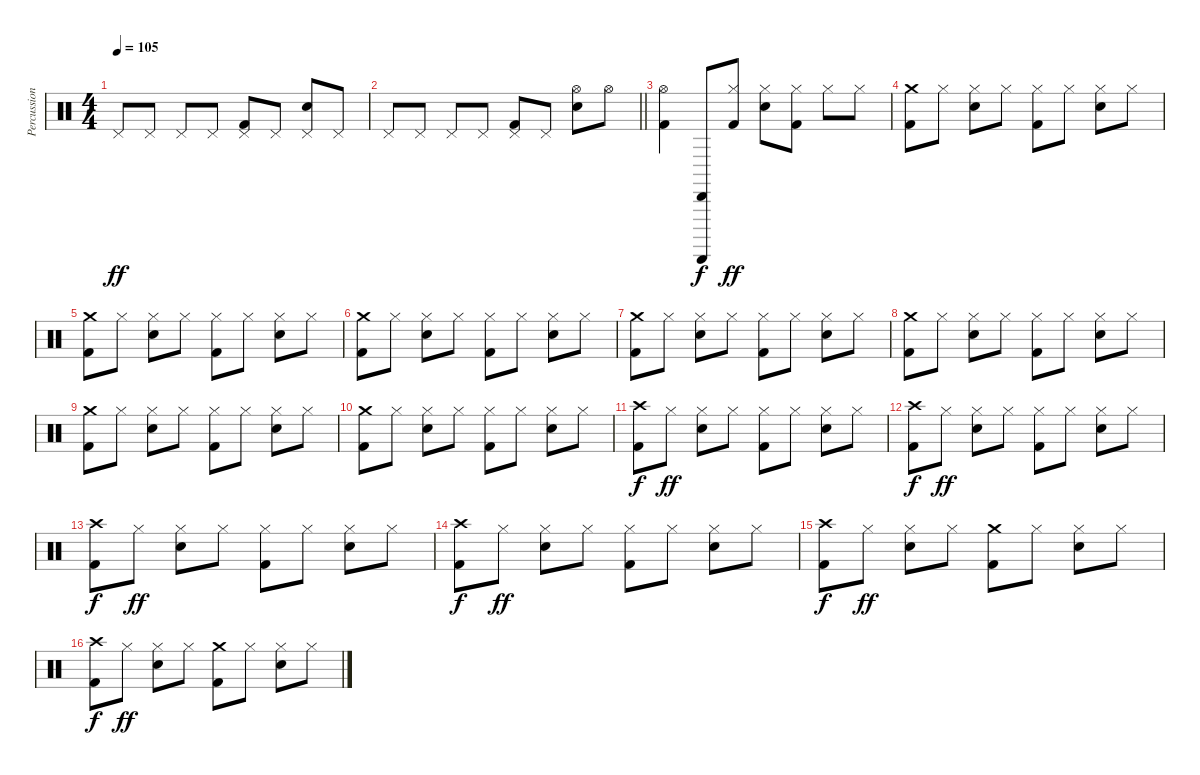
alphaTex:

\track ("Percussion" "Percussion") {instrument percussion}
\staff {score}
\articulation defaults
\ts (4 4)
\tempo 105
\clef neutral
\ks c "Pedal Hi-Hat (hit)".8{dy ff} "Pedal Hi-Hat (hit)".8 "Pedal Hi-Hat (hit)".8 "Pedal Hi-Hat (hit)".8
("Pedal Hi-Hat (hit)" "Kick (hit) 2").8 "Pedal Hi-Hat (hit)".8 ("Pedal Hi-Hat (hit)" "Electric Snare (hit)").8 "Pedal Hi-Hat (hit)".8 |
\barLineRight lightlight "Pedal Hi-Hat (hit)".8 "Pedal Hi-Hat (hit)".8 "Pedal Hi-Hat (hit)".8 "Pedal Hi-Hat (hit)".8
("Pedal Hi-Hat (hit)" "Kick (hit) 2").8 "Pedal Hi-Hat (hit)".8 ("Hi-Hat (open)" "Electric Snare (hit)").8 "Hi-Hat (open)".8 |
("Hi-Hat (open)" "Kick (hit) 2").4 ("Cabasa (hit)" "Guiro (scrap-return)").8{dy f} ("Hi-Hat (closed)" "Kick (hit) 2").8{dy ff} ("Hi-Hat (closed)" "Electric Snare (hit)").8 ("Hi-Hat (closed)" "Kick (hit) 2").8 "Hi-Hat (closed)".8 "Hi-Hat (closed)".8 |
("Crash medium (hit)" "Kick (hit) 2").8 "Hi-Hat (closed)".8 ("Hi-Hat (closed)" "Electric Snare (hit)").8 "Hi-Hat (closed)".8 ("Hi-Hat (closed)" "Kick (hit) 2").8 "Hi-Hat (closed)".8 ("Hi-Hat (closed)" "Electric Snare (hit)").8 "Hi-Hat (closed)".8 |
("Crash medium (hit)" "Kick (hit) 2").8 "Hi-Hat (closed)".8 ("Hi-Hat (closed)" "Electric Snare (hit)").8 "Hi-Hat (closed)".8 ("Hi-Hat (closed)" "Kick (hit) 2").8 "Hi-Hat (closed)".8 ("Hi-Hat (closed)" "Electric Snare (hit)").8 "Hi-Hat (closed)".8 |
("Crash medium (hit)" "Kick (hit) 2").8 "Hi-Hat (closed)".8 ("Hi-Hat (closed)" "Electric Snare (hit)").8 "Hi-Hat (closed)".8 ("Hi-Hat (closed)" "Kick (hit) 2").8 "Hi-Hat (closed)".8 ("Hi-Hat (closed)" "Electric Snare (hit)").8 "Hi-Hat (closed)".8 |
("Crash medium (hit)" "Kick (hit) 2").8 "Hi-Hat (closed)".8 ("Hi-Hat (closed)" "Electric Snare (hit)").8 "Hi-Hat (closed)".8 ("Hi-Hat (closed)" "Kick (hit) 2").8 "Hi-Hat (closed)".8 ("Hi-Hat (closed)" "Electric Snare (hit)").8 "Hi-Hat (closed)".8 |
("Crash medium (hit)" "Kick (hit) 2").8 "Hi-Hat (closed)".8 ("Hi-Hat (closed)" "Electric Snare (hit)").8 "Hi-Hat (closed)".8 ("Hi-Hat (closed)" "Kick (hit) 2").8 "Hi-Hat (closed)".8 ("Hi-Hat (closed)" "Electric Snare (hit)").8 "Hi-Hat (closed)".8 |
("Crash medium (hit)" "Kick (hit) 2").8 "Hi-Hat (closed)".8 ("Hi-Hat (closed)" "Electric Snare (hit)").8 "Hi-Hat (closed)".8 ("Hi-Hat (closed)" "Kick (hit) 2").8 "Hi-Hat (closed)".8 ("Hi-Hat (closed)" "Electric Snare (hit)").8 "Hi-Hat (closed)".8 |
("Crash medium (hit)" "Kick (hit) 2").8 "Hi-Hat (closed)".8 ("Hi-Hat (closed)" "Electric Snare (hit)").8 "Hi-Hat (closed)".8 ("Hi-Hat (closed)" "Kick (hit) 2").8 "Hi-Hat (closed)".8 ("Hi-Hat (closed)" "Electric Snare (hit)").8 "Hi-Hat (closed)".8 |
("Crash high (hit)" "Kick (hit) 2").8{dy f} "Hi-Hat (closed)".8{dy ff} ("Hi-Hat (closed)" "Electric Snare (hit)").8 "Hi-Hat (closed)".8 ("Hi-Hat (closed)" "Kick (hit) 2").8 "Hi-Hat (closed)".8 ("Hi-Hat (closed)" "Electric Snare (hit)").8 "Hi-Hat (closed)".8 |
("Crash high (hit)" "Kick (hit) 2").8{dy f} "Hi-Hat (closed)".8{dy ff} ("Hi-Hat (closed)" "Electric Snare (hit)").8 "Hi-Hat (closed)".8 ("Hi-Hat (closed)" "Kick (hit) 2").8 "Hi-Hat (closed)".8 ("Hi-Hat (closed)" "Electric Snare (hit)").8 "Hi-Hat (closed)".8 |
("Crash high (hit)" "Kick (hit) 2").8{dy f} "Hi-Hat (closed)".8{dy ff} ("Hi-Hat (closed)" "Electric Snare (hit)").8 "Hi-Hat (closed)".8 ("Hi-Hat (closed)" "Kick (hit) 2").8 "Hi-Hat (closed)".8 ("Hi-Hat (closed)" "Electric Snare (hit)").8 "Hi-Hat (closed)".8 |
("Crash high (hit)" "Kick (hit) 2").8{dy f} "Hi-Hat (closed)".8{dy ff} ("Hi-Hat (closed)" "Electric Snare (hit)").8 "Hi-Hat (closed)".8 ("Hi-Hat (closed)" "Kick (hit) 2").8 "Hi-Hat (closed)".8 ("Hi-Hat (closed)" "Electric Snare (hit)").8 "Hi-Hat (closed)".8 |
("Crash high (hit)" "Kick (hit) 2").8{dy f} "Hi-Hat (closed)".8{dy ff} ("Hi-Hat (closed)" "Electric Snare (hit)").8 "Hi-Hat (closed)".8 ("Crash medium (hit)" "Kick (hit) 2").8 "Hi-Hat (closed)".8 ("Hi-Hat (closed)" "Electric Snare (hit)").8 "Hi-Hat (closed)".8 |
("Crash high (hit)" "Kick (hit) 2").8{dy f} "Hi-Hat (closed)".8{dy ff} ("Hi-Hat (closed)" "Electric Snare (hit)").8 "Hi-Hat (closed)".8 ("Crash medium (hit)" "Kick (hit) 2").8 "Hi-Hat (closed)".8 ("Hi-Hat (closed)" "Electric Snare (hit)").8 "Hi-Hat (closed)".8
